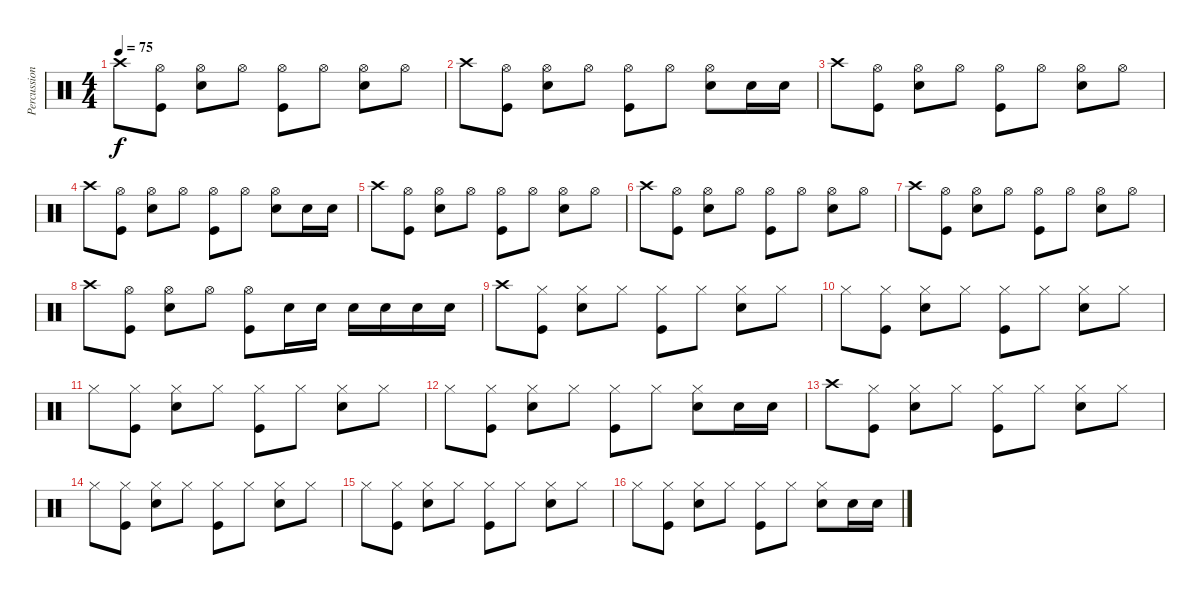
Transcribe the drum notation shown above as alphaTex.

\track ("Percussion" "Percussion") {instrument percussion}
\staff {score}
\articulation defaults
\ts (4 4)
\tempo 75
\clef neutral
\ks c "Crash high (hit)".8{dy f}
("Kick (hit)" "Hi-Hat (open)").8 ("Snare (hit) 2" "Hi-Hat (open)").8 "Hi-Hat (open)".8 ("Kick (hit)" "Hi-Hat (open)").8 "Hi-Hat (open)".8 ("Snare (hit) 2" "Hi-Hat (open)").8 "Hi-Hat (open)".8 |
"Crash high (hit)".8 ("Kick (hit)" "Hi-Hat (open)").8 ("Snare (hit) 2" "Hi-Hat (open)").8 "Hi-Hat (open)".8 ("Kick (hit)" "Hi-Hat (open)").8 "Hi-Hat (open)".8 ("Snare (hit) 2" "Hi-Hat (open)").8 "Snare (hit) 2".16 "Snare (hit) 2".16 |
"Crash high (hit)".8 ("Kick (hit)" "Hi-Hat (open)").8 ("Snare (hit) 2" "Hi-Hat (open)").8 "Hi-Hat (open)".8 ("Kick (hit)" "Hi-Hat (open)").8 "Hi-Hat (open)".8 ("Snare (hit) 2" "Hi-Hat (open)").8 "Hi-Hat (open)".8 |
"Crash high (hit)".8 ("Kick (hit)" "Hi-Hat (open)").8 ("Snare (hit) 2" "Hi-Hat (open)").8 "Hi-Hat (open)".8 ("Kick (hit)" "Hi-Hat (open)").8 "Hi-Hat (open)".8 ("Snare (hit) 2" "Hi-Hat (open)").8 "Snare (hit) 2".16 "Snare (hit) 2".16 |
"Crash high (hit)".8 ("Kick (hit)" "Hi-Hat (open)").8 ("Snare (hit) 2" "Hi-Hat (open)").8 "Hi-Hat (open)".8 ("Kick (hit)" "Hi-Hat (open)").8 "Hi-Hat (open)".8 ("Snare (hit) 2" "Hi-Hat (open)").8 "Hi-Hat (open)".8 |
"Crash high (hit)".8 ("Kick (hit)" "Hi-Hat (open)").8 ("Snare (hit) 2" "Hi-Hat (open)").8 "Hi-Hat (open)".8 ("Kick (hit)" "Hi-Hat (open)").8 "Hi-Hat (open)".8 ("Snare (hit) 2" "Hi-Hat (open)").8 "Hi-Hat (open)".8 |
"Crash high (hit)".8 ("Kick (hit)" "Hi-Hat (open)").8 ("Snare (hit) 2" "Hi-Hat (open)").8 "Hi-Hat (open)".8 ("Kick (hit)" "Hi-Hat (open)").8 "Hi-Hat (open)".8 ("Snare (hit) 2" "Hi-Hat (open)").8 "Hi-Hat (open)".8 |
"Crash high (hit)".8 ("Kick (hit)" "Hi-Hat (open)").8 ("Snare (hit) 2" "Hi-Hat (open)").8 "Hi-Hat (open)".8 ("Kick (hit)" "Hi-Hat (open)").8 "Snare (hit) 2".16 "Snare (hit) 2".16 "Snare (hit) 2".16 "Snare (hit) 2".16 "Snare (hit) 2".16 "Snare (hit) 2".16 |
"Crash high (hit)".8 ("Kick (hit)" "Hi-Hat (closed)").8 ("Snare (hit) 2" "Hi-Hat (closed)").8 "Hi-Hat (closed)".8 ("Kick (hit)" "Hi-Hat (closed)").8 "Hi-Hat (closed)".8 ("Snare (hit) 2" "Hi-Hat (closed)").8 "Hi-Hat (closed)".8 |
"Hi-Hat (closed)".8 ("Kick (hit)" "Hi-Hat (closed)").8 ("Snare (hit) 2" "Hi-Hat (closed)").8 "Hi-Hat (closed)".8 ("Kick (hit)" "Hi-Hat (closed)").8 "Hi-Hat (closed)".8 ("Snare (hit) 2" "Hi-Hat (closed)").8 "Hi-Hat (closed)".8 |
"Hi-Hat (closed)".8 ("Kick (hit)" "Hi-Hat (closed)").8 ("Snare (hit) 2" "Hi-Hat (closed)").8 "Hi-Hat (closed)".8 ("Kick (hit)" "Hi-Hat (closed)").8 "Hi-Hat (closed)".8 ("Snare (hit) 2" "Hi-Hat (closed)").8 "Hi-Hat (closed)".8 |
"Hi-Hat (closed)".8 ("Kick (hit)" "Hi-Hat (closed)").8 ("Snare (hit) 2" "Hi-Hat (closed)").8 "Hi-Hat (closed)".8 ("Kick (hit)" "Hi-Hat (closed)").8 "Hi-Hat (closed)".8 ("Snare (hit) 2" "Hi-Hat (closed)").8 "Snare (hit) 2".16 "Snare (hit) 2".16 |
"Crash high (hit)".8 ("Kick (hit)" "Hi-Hat (closed)").8 ("Snare (hit) 2" "Hi-Hat (closed)").8 "Hi-Hat (closed)".8 ("Kick (hit)" "Hi-Hat (closed)").8 "Hi-Hat (closed)".8 ("Snare (hit) 2" "Hi-Hat (closed)").8 "Hi-Hat (closed)".8 |
"Hi-Hat (closed)".8 ("Kick (hit)" "Hi-Hat (closed)").8 ("Snare (hit) 2" "Hi-Hat (closed)").8 "Hi-Hat (closed)".8 ("Kick (hit)" "Hi-Hat (closed)").8 "Hi-Hat (closed)".8 ("Snare (hit) 2" "Hi-Hat (closed)").8 "Hi-Hat (closed)".8 |
"Hi-Hat (closed)".8 ("Kick (hit)" "Hi-Hat (closed)").8 ("Snare (hit) 2" "Hi-Hat (closed)").8 "Hi-Hat (closed)".8 ("Kick (hit)" "Hi-Hat (closed)").8 "Hi-Hat (closed)".8 ("Snare (hit) 2" "Hi-Hat (closed)").8 "Hi-Hat (closed)".8 |
"Hi-Hat (closed)".8 ("Kick (hit)" "Hi-Hat (closed)").8 ("Snare (hit) 2" "Hi-Hat (closed)").8 "Hi-Hat (closed)".8 ("Kick (hit)" "Hi-Hat (closed)").8 "Hi-Hat (closed)".8 ("Snare (hit) 2" "Hi-Hat (closed)").8 "Snare (hit) 2".16 "Snare (hit) 2".16
